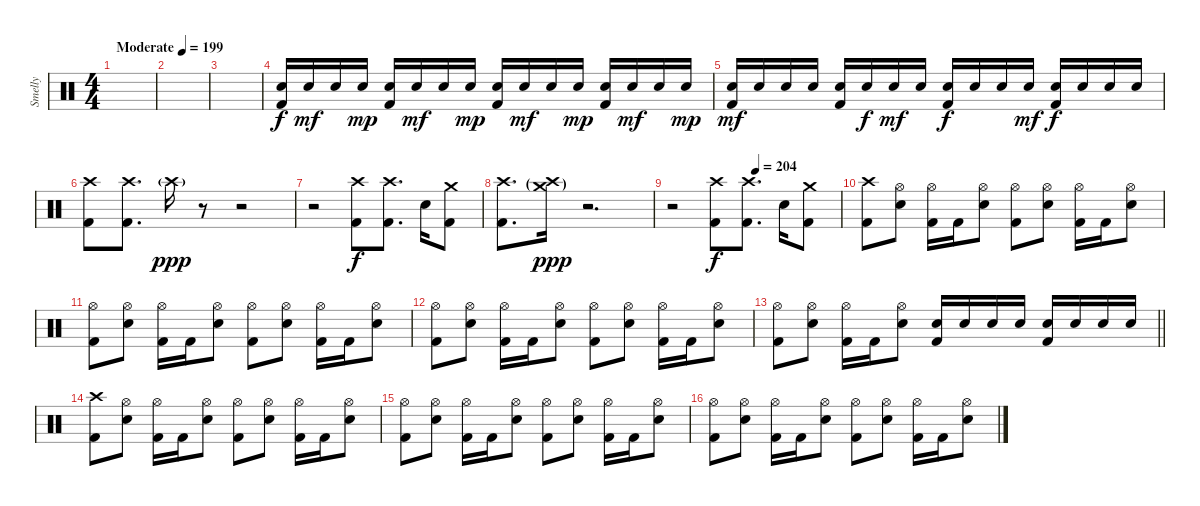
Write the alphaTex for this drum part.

\track ("Smelly" "Smelly") {instrument percussion}
\staff {score}
\articulation defaults
\ts (4 4)
\tempo (199 "Moderate")
\clef neutral
\ks c
|
|
|
("Electric Snare (hit)" "Kick (hit) 2").16 "Electric Snare (hit)".16{dy mf} "Electric Snare (hit)".16 "Electric Snare (hit)".16{dy mp} ("Electric Snare (hit)" "Kick (hit) 2").16 "Electric Snare (hit)".16{dy mf} "Electric Snare (hit)".16 "Electric Snare (hit)".16{dy mp} ("Electric Snare (hit)" "Kick (hit) 2").16 "Electric Snare (hit)".16{dy mf} "Electric Snare (hit)".16 "Electric Snare (hit)".16{dy mp} ("Electric Snare (hit)" "Kick (hit) 2").16 "Electric Snare (hit)".16{dy mf} "Electric Snare (hit)".16 "Electric Snare (hit)".16{dy mp} |
("Electric Snare (hit)" "Kick (hit) 2").16{dy mf} "Electric Snare (hit)".16 "Electric Snare (hit)".16 "Electric Snare (hit)".16 ("Electric Snare (hit)" "Kick (hit) 2").16 "Electric Snare (hit)".16{dy f} "Electric Snare (hit)".16{dy mf} "Electric Snare (hit)".16 ("Electric Snare (hit)" "Kick (hit) 2").16{dy f} "Electric Snare (hit)".16 "Electric Snare (hit)".16 "Electric Snare (hit)".16{dy mf} ("Electric Snare (hit)" "Kick (hit) 2").16{dy f} "Electric Snare (hit)".16 "Electric Snare (hit)".16 "Electric Snare (hit)".16 |
("Crash high (hit)" "Kick (hit) 2").8 ("Crash high (hit)" "Kick (hit) 2").8{d} "Crash high (hit)"{g}.16{dy ppp} r.8 r.2 |
r.2 ("Crash high (hit)" "Kick (hit) 2").8{dy f} ("Crash high (hit)" "Kick (hit) 2").8{d} "Electric Snare (hit)".16 ("Crash medium (hit)" "Kick (hit) 2").8 |
("Crash high (hit)" "Kick (hit) 2").8{d} ("Crash high (hit)"{g} "Crash medium (hit)"{g}).16{dy ppp} r.2{d} |
\tempo (204 0.5)
r.2 ("Crash high (hit)" "Kick (hit) 2").8{dy f} ("Crash high (hit)" "Kick (hit) 2").8{d} "Electric Snare (hit)".16 ("Crash medium (hit)" "Kick (hit) 2").8 |
("Crash high (hit)" "Kick (hit) 2").8 ("Hi-Hat (open)" "Electric Snare (hit)").8 ("Hi-Hat (open)" "Kick (hit) 2").16 "Kick (hit) 2".16 ("Hi-Hat (open)" "Electric Snare (hit)").8 ("Hi-Hat (open)" "Kick (hit) 2").8 ("Hi-Hat (open)" "Electric Snare (hit)").8 ("Hi-Hat (open)" "Kick (hit) 2").16 "Kick (hit) 2".16 ("Hi-Hat (open)" "Electric Snare (hit)").8 |
("Hi-Hat (open)" "Kick (hit) 2").8 ("Hi-Hat (open)" "Electric Snare (hit)").8 ("Hi-Hat (open)" "Kick (hit) 2").16 "Kick (hit) 2".16 ("Hi-Hat (open)" "Electric Snare (hit)").8 ("Hi-Hat (open)" "Kick (hit) 2").8 ("Hi-Hat (open)" "Electric Snare (hit)").8 ("Hi-Hat (open)" "Kick (hit) 2").16 "Kick (hit) 2".16 ("Hi-Hat (open)" "Electric Snare (hit)").8 |
("Hi-Hat (open)" "Kick (hit) 2").8 ("Hi-Hat (open)" "Electric Snare (hit)").8 ("Hi-Hat (open)" "Kick (hit) 2").16 "Kick (hit) 2".16 ("Hi-Hat (open)" "Electric Snare (hit)").8 ("Hi-Hat (open)" "Kick (hit) 2").8 ("Hi-Hat (open)" "Electric Snare (hit)").8 ("Hi-Hat (open)" "Kick (hit) 2").16 "Kick (hit) 2".16 ("Hi-Hat (open)" "Electric Snare (hit)").8 |
\barLineRight lightlight
("Hi-Hat (open)" "Kick (hit) 2").8 ("Hi-Hat (open)" "Electric Snare (hit)").8 ("Hi-Hat (open)" "Kick (hit) 2").16 "Kick (hit) 2".16 ("Hi-Hat (open)" "Electric Snare (hit)").8 ("Electric Snare (hit)" "Kick (hit) 2").16 "Electric Snare (hit)".16 "Electric Snare (hit)".16 "Electric Snare (hit)".16 ("Electric Snare (hit)" "Kick (hit) 2").16 "Electric Snare (hit)".16 "Electric Snare (hit)".16 "Electric Snare (hit)".16 |
\section ("" "")
("Crash high (hit)" "Kick (hit) 2").8 ("Hi-Hat (open)" "Electric Snare (hit)").8 ("Hi-Hat (open)" "Kick (hit) 2").16 "Kick (hit) 2".16 ("Hi-Hat (open)" "Electric Snare (hit)").8 ("Hi-Hat (open)" "Kick (hit) 2").8 ("Hi-Hat (open)" "Electric Snare (hit)").8 ("Hi-Hat (open)" "Kick (hit) 2").16 "Kick (hit) 2".16 ("Hi-Hat (open)" "Electric Snare (hit)").8 |
("Hi-Hat (open)" "Kick (hit) 2").8 ("Hi-Hat (open)" "Electric Snare (hit)").8 ("Hi-Hat (open)" "Kick (hit) 2").16 "Kick (hit) 2".16 ("Hi-Hat (open)" "Electric Snare (hit)").8 ("Hi-Hat (open)" "Kick (hit) 2").8 ("Hi-Hat (open)" "Electric Snare (hit)").8 ("Hi-Hat (open)" "Kick (hit) 2").16 "Kick (hit) 2".16 ("Hi-Hat (open)" "Electric Snare (hit)").8 |
("Hi-Hat (open)" "Kick (hit) 2").8 ("Hi-Hat (open)" "Electric Snare (hit)").8 ("Hi-Hat (open)" "Kick (hit) 2").16 "Kick (hit) 2".16 ("Hi-Hat (open)" "Electric Snare (hit)").8 ("Hi-Hat (open)" "Kick (hit) 2").8 ("Hi-Hat (open)" "Electric Snare (hit)").8 ("Hi-Hat (open)" "Kick (hit) 2").16 "Kick (hit) 2".16 ("Hi-Hat (open)" "Electric Snare (hit)").8
